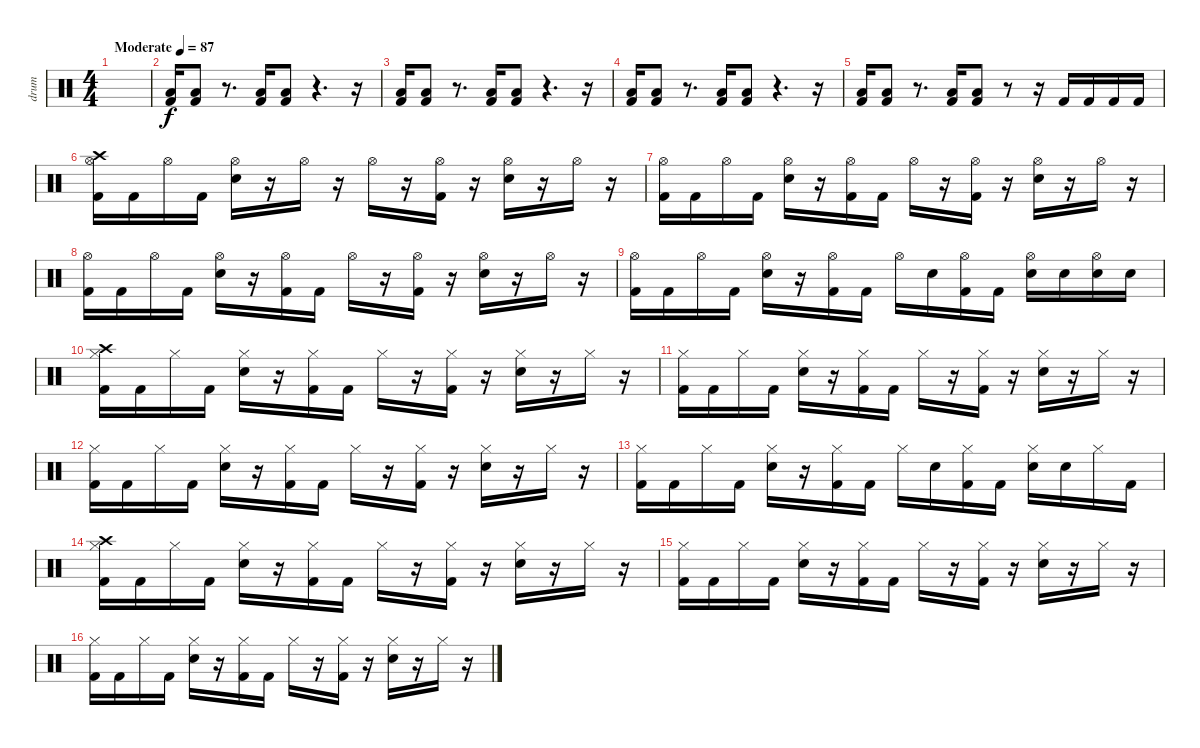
\track ("drum" "drum") {instrument percussion}
\staff {score}
\articulation defaults
\ts (4 4)
\tempo (87 "Moderate")
\clef neutral
\ks c
|
("Low Floor Tom (hit)" "Kick (hit) 2").16 ("Low Floor Tom (hit)" "Kick (hit) 2").8 r.8{d} ("Low Floor Tom (hit)" "Kick (hit) 2").16 ("Low Floor Tom (hit)" "Kick (hit) 2").8 r.4{d} r.16 |
("Low Floor Tom (hit)" "Kick (hit) 2").16 ("Low Floor Tom (hit)" "Kick (hit) 2").8 r.8{d} ("Low Floor Tom (hit)" "Kick (hit) 2").16 ("Low Floor Tom (hit)" "Kick (hit) 2").8 r.4{d} r.16 |
("Low Floor Tom (hit)" "Kick (hit) 2").16 ("Low Floor Tom (hit)" "Kick (hit) 2").8 r.8{d} ("Low Floor Tom (hit)" "Kick (hit) 2").16 ("Low Floor Tom (hit)" "Kick (hit) 2").8 r.4{d} r.16 |
("Low Floor Tom (hit)" "Kick (hit) 2").16 ("Low Floor Tom (hit)" "Kick (hit) 2").8 r.8{d} ("Low Floor Tom (hit)" "Kick (hit) 2").16 ("Low Floor Tom (hit)" "Kick (hit) 2").8 r.8 r.16 "Kick (hit) 2".16 "Kick (hit) 2".16 "Kick (hit) 2".16 "Kick (hit) 2".16 |
("Crash high (hit)" "Hi-Hat (open)" "Kick (hit) 2").16 "Kick (hit) 2".16 "Hi-Hat (open)".16 "Kick (hit) 2".16 ("Hi-Hat (open)" "Electric Snare (hit)").16 r.16 "Hi-Hat (open)".16 r.16 "Hi-Hat (open)".16 r.16 ("Hi-Hat (open)" "Kick (hit) 2").16 r.16 ("Hi-Hat (open)" "Electric Snare (hit)").16 r.16 "Hi-Hat (open)".16 r.16 |
("Hi-Hat (open)" "Kick (hit) 2").16 "Kick (hit) 2".16 "Hi-Hat (open)".16 "Kick (hit) 2".16 ("Hi-Hat (open)" "Electric Snare (hit)").16 r.16 ("Hi-Hat (open)" "Kick (hit) 2").16 "Kick (hit) 2".16 "Hi-Hat (open)".16 r.16 ("Hi-Hat (open)" "Kick (hit) 2").16 r.16 ("Hi-Hat (open)" "Electric Snare (hit)").16 r.16 "Hi-Hat (open)".16 r.16 |
("Hi-Hat (open)" "Kick (hit) 2").16 "Kick (hit) 2".16 "Hi-Hat (open)".16 "Kick (hit) 2".16 ("Hi-Hat (open)" "Electric Snare (hit)").16 r.16 ("Hi-Hat (open)" "Kick (hit) 2").16 "Kick (hit) 2".16 "Hi-Hat (open)".16 r.16 ("Hi-Hat (open)" "Kick (hit) 2").16 r.16 ("Hi-Hat (open)" "Electric Snare (hit)").16 r.16 "Hi-Hat (open)".16 r.16 |
("Hi-Hat (open)" "Kick (hit) 2").16 "Kick (hit) 2".16 "Hi-Hat (open)".16 "Kick (hit) 2".16 ("Hi-Hat (open)" "Electric Snare (hit)").16 r.16 ("Hi-Hat (open)" "Kick (hit) 2").16 "Kick (hit) 2".16 "Hi-Hat (open)".16 "Electric Snare (hit)".16 ("Hi-Hat (open)" "Kick (hit) 2").16 "Kick (hit) 2".16 ("Hi-Hat (open)" "Electric Snare (hit)").16 "Electric Snare (hit)".16 ("Hi-Hat (open)" "Electric Snare (hit)").16 "Electric Snare (hit)".16 |
("Crash high (hit)" "Hi-Hat (closed)" "Kick (hit) 2").16 "Kick (hit) 2".16 "Hi-Hat (closed)".16 "Kick (hit) 2".16 ("Hi-Hat (closed)" "Electric Snare (hit)").16 r.16 ("Hi-Hat (closed)" "Kick (hit) 2").16 "Kick (hit) 2".16 "Hi-Hat (closed)".16 r.16 ("Hi-Hat (closed)" "Kick (hit) 2").16 r.16 ("Hi-Hat (closed)" "Electric Snare (hit)").16 r.16 "Hi-Hat (closed)".16 r.16 |
("Hi-Hat (closed)" "Kick (hit) 2").16 "Kick (hit) 2".16 "Hi-Hat (closed)".16 "Kick (hit) 2".16 ("Hi-Hat (closed)" "Electric Snare (hit)").16 r.16 ("Hi-Hat (closed)" "Kick (hit) 2").16 "Kick (hit) 2".16 "Hi-Hat (closed)".16 r.16 ("Hi-Hat (closed)" "Kick (hit) 2").16 r.16 ("Hi-Hat (closed)" "Electric Snare (hit)").16 r.16 "Hi-Hat (closed)".16 r.16 |
("Hi-Hat (closed)" "Kick (hit) 2").16 "Kick (hit) 2".16 "Hi-Hat (closed)".16 "Kick (hit) 2".16 ("Hi-Hat (closed)" "Electric Snare (hit)").16 r.16 ("Hi-Hat (closed)" "Kick (hit) 2").16 "Kick (hit) 2".16 "Hi-Hat (closed)".16 r.16 ("Hi-Hat (closed)" "Kick (hit) 2").16 r.16 ("Hi-Hat (closed)" "Electric Snare (hit)").16 r.16 "Hi-Hat (closed)".16 r.16 |
("Hi-Hat (closed)" "Kick (hit) 2").16 "Kick (hit) 2".16 "Hi-Hat (closed)".16 "Kick (hit) 2".16 ("Hi-Hat (closed)" "Electric Snare (hit)").16 r.16 ("Hi-Hat (closed)" "Kick (hit) 2").16 "Kick (hit) 2".16 "Hi-Hat (closed)".16 "Electric Snare (hit)".16 ("Hi-Hat (closed)" "Kick (hit) 2").16 "Kick (hit) 2".16 ("Hi-Hat (closed)" "Electric Snare (hit)").16 "Electric Snare (hit)".16 "Hi-Hat (closed)".16 "Kick (hit) 2".16 |
("Crash high (hit)" "Hi-Hat (closed)" "Kick (hit) 2").16 "Kick (hit) 2".16 "Hi-Hat (closed)".16 "Kick (hit) 2".16 ("Hi-Hat (closed)" "Electric Snare (hit)").16 r.16 ("Hi-Hat (closed)" "Kick (hit) 2").16 "Kick (hit) 2".16 "Hi-Hat (closed)".16 r.16 ("Hi-Hat (closed)" "Kick (hit) 2").16 r.16 ("Hi-Hat (closed)" "Electric Snare (hit)").16 r.16 "Hi-Hat (closed)".16 r.16 |
("Hi-Hat (closed)" "Kick (hit) 2").16 "Kick (hit) 2".16 "Hi-Hat (closed)".16 "Kick (hit) 2".16 ("Hi-Hat (closed)" "Electric Snare (hit)").16 r.16 ("Hi-Hat (closed)" "Kick (hit) 2").16 "Kick (hit) 2".16 "Hi-Hat (closed)".16 r.16 ("Hi-Hat (closed)" "Kick (hit) 2").16 r.16 ("Hi-Hat (closed)" "Electric Snare (hit)").16 r.16 "Hi-Hat (closed)".16 r.16 |
("Hi-Hat (closed)" "Kick (hit) 2").16 "Kick (hit) 2".16 "Hi-Hat (closed)".16 "Kick (hit) 2".16 ("Hi-Hat (closed)" "Electric Snare (hit)").16 r.16 ("Hi-Hat (closed)" "Kick (hit) 2").16 "Kick (hit) 2".16 "Hi-Hat (closed)".16 r.16 ("Hi-Hat (closed)" "Kick (hit) 2").16 r.16 ("Hi-Hat (closed)" "Electric Snare (hit)").16 r.16 "Hi-Hat (closed)".16 r.16
